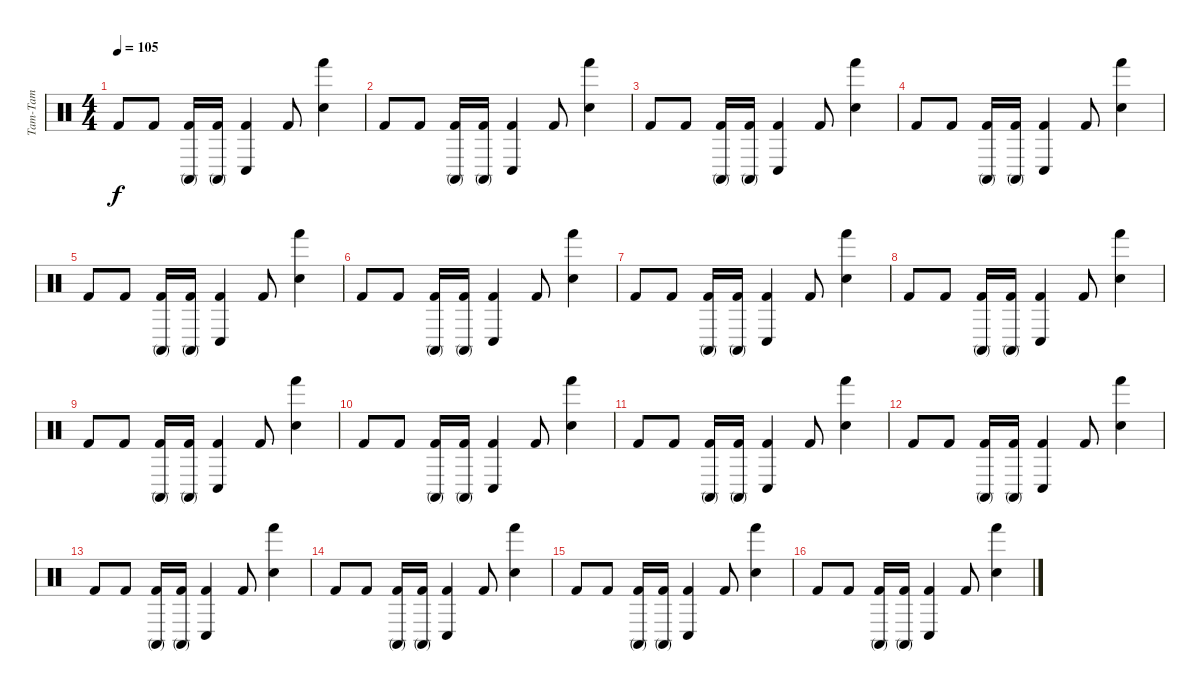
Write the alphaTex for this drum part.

\track ("Tam-Tam" "Tam-Tam") {instrument percussion}
\staff {score}
\articulation defaults
\ts (4 4)
\tempo 105
\clef neutral
\ks c "Kick (hit) 2".8{dy f} "Kick (hit) 2".8
("Conga high (mute)" "Kick (hit) 2").16 ("Conga high (mute)" "Kick (hit) 2").16 ("Conga low (hit)" "Kick (hit) 2").4 "Kick (hit) 2".8 ("Hand (hit)" "Electric Snare (hit)").4 |
"Kick (hit) 2".8 "Kick (hit) 2".8 ("Conga high (mute)" "Kick (hit) 2").16 ("Conga high (mute)" "Kick (hit) 2").16 ("Conga low (hit)" "Kick (hit) 2").4 "Kick (hit) 2".8 ("Hand (hit)" "Electric Snare (hit)").4 |
"Kick (hit) 2".8 "Kick (hit) 2".8 ("Conga high (mute)" "Kick (hit) 2").16 ("Conga high (mute)" "Kick (hit) 2").16 ("Conga low (hit)" "Kick (hit) 2").4 "Kick (hit) 2".8 ("Hand (hit)" "Electric Snare (hit)").4 |
"Kick (hit) 2".8 "Kick (hit) 2".8 ("Conga high (mute)" "Kick (hit) 2").16 ("Conga high (mute)" "Kick (hit) 2").16 ("Conga low (hit)" "Kick (hit) 2").4 "Kick (hit) 2".8 ("Hand (hit)" "Electric Snare (hit)").4 |
"Kick (hit) 2".8 "Kick (hit) 2".8 ("Conga high (mute)" "Kick (hit) 2").16 ("Conga high (mute)" "Kick (hit) 2").16 ("Conga low (hit)" "Kick (hit) 2").4 "Kick (hit) 2".8 ("Hand (hit)" "Electric Snare (hit)").4 |
"Kick (hit) 2".8 "Kick (hit) 2".8 ("Conga high (mute)" "Kick (hit) 2").16 ("Conga high (mute)" "Kick (hit) 2").16 ("Conga low (hit)" "Kick (hit) 2").4 "Kick (hit) 2".8 ("Hand (hit)" "Electric Snare (hit)").4 |
"Kick (hit) 2".8 "Kick (hit) 2".8 ("Conga high (mute)" "Kick (hit) 2").16 ("Conga high (mute)" "Kick (hit) 2").16 ("Conga low (hit)" "Kick (hit) 2").4 "Kick (hit) 2".8 ("Hand (hit)" "Electric Snare (hit)").4 |
"Kick (hit) 2".8 "Kick (hit) 2".8 ("Conga high (mute)" "Kick (hit) 2").16 ("Conga high (mute)" "Kick (hit) 2").16 ("Conga low (hit)" "Kick (hit) 2").4 "Kick (hit) 2".8 ("Hand (hit)" "Electric Snare (hit)").4 |
"Kick (hit) 2".8 "Kick (hit) 2".8 ("Conga high (mute)" "Kick (hit) 2").16 ("Conga high (mute)" "Kick (hit) 2").16 ("Conga low (hit)" "Kick (hit) 2").4 "Kick (hit) 2".8 ("Hand (hit)" "Electric Snare (hit)").4 |
"Kick (hit) 2".8 "Kick (hit) 2".8 ("Conga high (mute)" "Kick (hit) 2").16 ("Conga high (mute)" "Kick (hit) 2").16 ("Conga low (hit)" "Kick (hit) 2").4 "Kick (hit) 2".8 ("Hand (hit)" "Electric Snare (hit)").4 |
"Kick (hit) 2".8 "Kick (hit) 2".8 ("Conga high (mute)" "Kick (hit) 2").16 ("Conga high (mute)" "Kick (hit) 2").16 ("Conga low (hit)" "Kick (hit) 2").4 "Kick (hit) 2".8 ("Hand (hit)" "Electric Snare (hit)").4 |
"Kick (hit) 2".8 "Kick (hit) 2".8 ("Conga high (mute)" "Kick (hit) 2").16 ("Conga high (mute)" "Kick (hit) 2").16 ("Conga low (hit)" "Kick (hit) 2").4 "Kick (hit) 2".8 ("Hand (hit)" "Electric Snare (hit)").4 |
"Kick (hit) 2".8 "Kick (hit) 2".8 ("Conga high (mute)" "Kick (hit) 2").16 ("Conga high (mute)" "Kick (hit) 2").16 ("Conga low (hit)" "Kick (hit) 2").4 "Kick (hit) 2".8 ("Hand (hit)" "Electric Snare (hit)").4 |
"Kick (hit) 2".8 "Kick (hit) 2".8 ("Conga high (mute)" "Kick (hit) 2").16 ("Conga high (mute)" "Kick (hit) 2").16 ("Conga low (hit)" "Kick (hit) 2").4 "Kick (hit) 2".8 ("Hand (hit)" "Electric Snare (hit)").4 |
"Kick (hit) 2".8 "Kick (hit) 2".8 ("Conga high (mute)" "Kick (hit) 2").16 ("Conga high (mute)" "Kick (hit) 2").16 ("Conga low (hit)" "Kick (hit) 2").4 "Kick (hit) 2".8 ("Hand (hit)" "Electric Snare (hit)").4 |
"Kick (hit) 2".8 "Kick (hit) 2".8 ("Conga high (mute)" "Kick (hit) 2").16 ("Conga high (mute)" "Kick (hit) 2").16 ("Conga low (hit)" "Kick (hit) 2").4 "Kick (hit) 2".8 ("Hand (hit)" "Electric Snare (hit)").4
